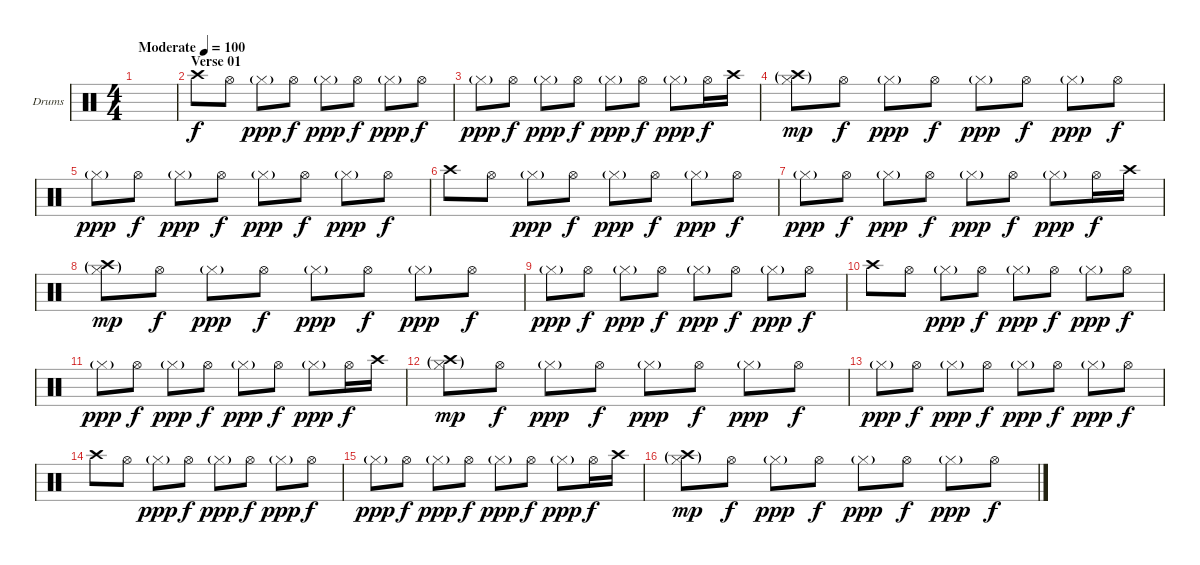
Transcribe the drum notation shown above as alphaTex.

\bracketExtendMode groupsimilarinstruments
\firstSystemTrackNameOrientation horizontal
\otherSystemsTrackNameOrientation horizontal
\track ("Cymbals right" "Drums") {instrument percussion}
\staff {score}
\articulation defaults
\ts (4 4)
\tempo (100 "Moderate")
\clef neutral
\ks c
|
\section ("" "Verse 01")
"Crash high (hit)".8 "Hi-Hat (open)".8 "Hi-Hat (closed)"{g}.8{dy ppp} "Hi-Hat (open)".8{dy f} "Hi-Hat (closed)"{g}.8{dy ppp} "Hi-Hat (open)".8{dy f} "Hi-Hat (closed)"{g}.8{dy ppp} "Hi-Hat (open)".8{dy f} |
"Hi-Hat (closed)"{g}.8{dy ppp} "Hi-Hat (open)".8{dy f} "Hi-Hat (closed)"{g}.8{dy ppp} "Hi-Hat (open)".8{dy f} "Hi-Hat (closed)"{g}.8{dy ppp} "Hi-Hat (open)".8{dy f} "Hi-Hat (closed)"{g}.8{dy ppp} "Hi-Hat (open)".16{dy f} "Crash high (hit)".16 |
("Crash high (hit)"{g} "Hi-Hat (closed)"{g}).8{dy mp} "Hi-Hat (open)".8{dy f} "Hi-Hat (closed)"{g}.8{dy ppp} "Hi-Hat (open)".8{dy f} "Hi-Hat (closed)"{g}.8{dy ppp} "Hi-Hat (open)".8{dy f} "Hi-Hat (closed)"{g}.8{dy ppp} "Hi-Hat (open)".8{dy f} |
"Hi-Hat (closed)"{g}.8{dy ppp} "Hi-Hat (open)".8{dy f} "Hi-Hat (closed)"{g}.8{dy ppp} "Hi-Hat (open)".8{dy f} "Hi-Hat (closed)"{g}.8{dy ppp} "Hi-Hat (open)".8{dy f} "Hi-Hat (closed)"{g}.8{dy ppp} "Hi-Hat (open)".8{dy f} |
"Crash high (hit)".8 "Hi-Hat (open)".8 "Hi-Hat (closed)"{g}.8{dy ppp} "Hi-Hat (open)".8{dy f} "Hi-Hat (closed)"{g}.8{dy ppp} "Hi-Hat (open)".8{dy f} "Hi-Hat (closed)"{g}.8{dy ppp} "Hi-Hat (open)".8{dy f} |
"Hi-Hat (closed)"{g}.8{dy ppp} "Hi-Hat (open)".8{dy f} "Hi-Hat (closed)"{g}.8{dy ppp} "Hi-Hat (open)".8{dy f} "Hi-Hat (closed)"{g}.8{dy ppp} "Hi-Hat (open)".8{dy f} "Hi-Hat (closed)"{g}.8{dy ppp} "Hi-Hat (open)".16{dy f} "Crash high (hit)".16 |
("Crash high (hit)"{g} "Hi-Hat (closed)"{g}).8{dy mp} "Hi-Hat (open)".8{dy f} "Hi-Hat (closed)"{g}.8{dy ppp} "Hi-Hat (open)".8{dy f} "Hi-Hat (closed)"{g}.8{dy ppp} "Hi-Hat (open)".8{dy f} "Hi-Hat (closed)"{g}.8{dy ppp} "Hi-Hat (open)".8{dy f} |
"Hi-Hat (closed)"{g}.8{dy ppp} "Hi-Hat (open)".8{dy f} "Hi-Hat (closed)"{g}.8{dy ppp} "Hi-Hat (open)".8{dy f} "Hi-Hat (closed)"{g}.8{dy ppp} "Hi-Hat (open)".8{dy f} "Hi-Hat (closed)"{g}.8{dy ppp} "Hi-Hat (open)".8{dy f} |
"Crash high (hit)".8 "Hi-Hat (open)".8 "Hi-Hat (closed)"{g}.8{dy ppp} "Hi-Hat (open)".8{dy f} "Hi-Hat (closed)"{g}.8{dy ppp} "Hi-Hat (open)".8{dy f} "Hi-Hat (closed)"{g}.8{dy ppp} "Hi-Hat (open)".8{dy f} |
"Hi-Hat (closed)"{g}.8{dy ppp} "Hi-Hat (open)".8{dy f} "Hi-Hat (closed)"{g}.8{dy ppp} "Hi-Hat (open)".8{dy f} "Hi-Hat (closed)"{g}.8{dy ppp} "Hi-Hat (open)".8{dy f} "Hi-Hat (closed)"{g}.8{dy ppp} "Hi-Hat (open)".16{dy f} "Crash high (hit)".16 |
("Crash high (hit)"{g} "Hi-Hat (closed)"{g}).8{dy mp} "Hi-Hat (open)".8{dy f} "Hi-Hat (closed)"{g}.8{dy ppp} "Hi-Hat (open)".8{dy f} "Hi-Hat (closed)"{g}.8{dy ppp} "Hi-Hat (open)".8{dy f} "Hi-Hat (closed)"{g}.8{dy ppp} "Hi-Hat (open)".8{dy f} |
"Hi-Hat (closed)"{g}.8{dy ppp} "Hi-Hat (open)".8{dy f} "Hi-Hat (closed)"{g}.8{dy ppp} "Hi-Hat (open)".8{dy f} "Hi-Hat (closed)"{g}.8{dy ppp} "Hi-Hat (open)".8{dy f} "Hi-Hat (closed)"{g}.8{dy ppp} "Hi-Hat (open)".8{dy f} |
"Crash high (hit)".8 "Hi-Hat (open)".8 "Hi-Hat (closed)"{g}.8{dy ppp} "Hi-Hat (open)".8{dy f} "Hi-Hat (closed)"{g}.8{dy ppp} "Hi-Hat (open)".8{dy f} "Hi-Hat (closed)"{g}.8{dy ppp} "Hi-Hat (open)".8{dy f} |
"Hi-Hat (closed)"{g}.8{dy ppp} "Hi-Hat (open)".8{dy f} "Hi-Hat (closed)"{g}.8{dy ppp} "Hi-Hat (open)".8{dy f} "Hi-Hat (closed)"{g}.8{dy ppp} "Hi-Hat (open)".8{dy f} "Hi-Hat (closed)"{g}.8{dy ppp} "Hi-Hat (open)".16{dy f} "Crash high (hit)".16 |
("Crash high (hit)"{g} "Hi-Hat (closed)"{g}).8{dy mp} "Hi-Hat (open)".8{dy f} "Hi-Hat (closed)"{g}.8{dy ppp} "Hi-Hat (open)".8{dy f} "Hi-Hat (closed)"{g}.8{dy ppp} "Hi-Hat (open)".8{dy f} "Hi-Hat (closed)"{g}.8{dy ppp} "Hi-Hat (open)".8{dy f}
